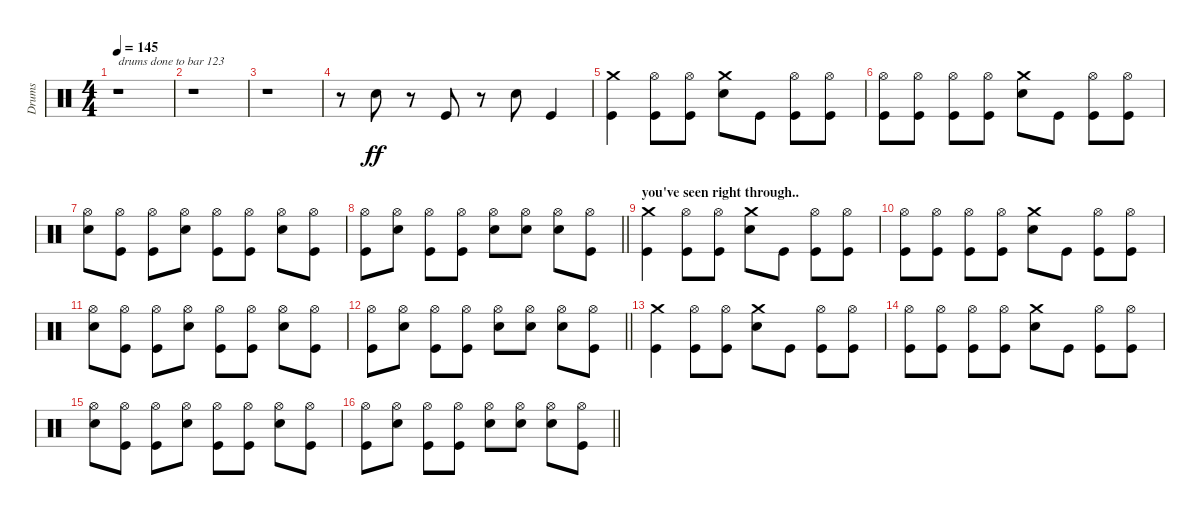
\track ("Drums" "Drums") {instrument percussion}
\staff {score}
\articulation defaults
\ts (4 4)
\tempo 145
\clef neutral
\ks c
r.1{txt "drums done to bar 123" dy ff} |
r.1 |
r.1 |
r.8 "Snare (hit) 2".8 r.8 "Kick (hit)".8 r.8 "Snare (hit) 2".8 "Kick (hit)".4 |
("Kick (hit)" "Crash medium (hit)").4 ("Hi-Hat (open)" "Kick (hit)").8 ("Hi-Hat (open)" "Kick (hit)").8 ("Snare (hit) 2" "Crash medium (hit)").8 "Kick (hit)".8 ("Hi-Hat (open)" "Kick (hit)").8 ("Hi-Hat (open)" "Kick (hit)").8 |
("Hi-Hat (open)" "Kick (hit)").8 ("Hi-Hat (open)" "Kick (hit)").8 ("Kick (hit)" "Hi-Hat (open)").8 ("Hi-Hat (open)" "Kick (hit)").8 ("Snare (hit) 2" "Crash medium (hit)").8 "Kick (hit)".8 ("Hi-Hat (open)" "Kick (hit)").8 ("Hi-Hat (open)" "Kick (hit)").8 |
("Hi-Hat (open)" "Snare (hit) 2").8 ("Hi-Hat (open)" "Kick (hit)").8 ("Hi-Hat (open)" "Kick (hit)").8 ("Snare (hit) 2" "Hi-Hat (open)").8 ("Hi-Hat (open)" "Kick (hit)").8 ("Hi-Hat (open)" "Kick (hit)").8 ("Snare (hit) 2" "Hi-Hat (open)").8 ("Hi-Hat (open)" "Kick (hit)").8 |
\barLineRight lightlight
("Hi-Hat (open)" "Kick (hit)").8 ("Snare (hit) 2" "Hi-Hat (open)").8 ("Hi-Hat (open)" "Kick (hit)").8 ("Hi-Hat (open)" "Kick (hit)").8 ("Hi-Hat (open)" "Snare (hit) 2").8 ("Hi-Hat (open)" "Snare (hit) 2").8 ("Hi-Hat (open)" "Snare (hit) 2").8 ("Hi-Hat (open)" "Kick (hit)").8 |
\section ("" "you've seen right through..")
("Kick (hit)" "Crash medium (hit)").4 ("Hi-Hat (open)" "Kick (hit)").8 ("Hi-Hat (open)" "Kick (hit)").8 ("Snare (hit) 2" "Crash medium (hit)").8 "Kick (hit)".8 ("Hi-Hat (open)" "Kick (hit)").8 ("Hi-Hat (open)" "Kick (hit)").8 |
("Hi-Hat (open)" "Kick (hit)").8 ("Hi-Hat (open)" "Kick (hit)").8 ("Kick (hit)" "Hi-Hat (open)").8 ("Hi-Hat (open)" "Kick (hit)").8 ("Snare (hit) 2" "Crash medium (hit)").8 "Kick (hit)".8 ("Hi-Hat (open)" "Kick (hit)").8 ("Hi-Hat (open)" "Kick (hit)").8 |
("Hi-Hat (open)" "Snare (hit) 2").8 ("Hi-Hat (open)" "Kick (hit)").8 ("Hi-Hat (open)" "Kick (hit)").8 ("Snare (hit) 2" "Hi-Hat (open)").8 ("Hi-Hat (open)" "Kick (hit)").8 ("Hi-Hat (open)" "Kick (hit)").8 ("Snare (hit) 2" "Hi-Hat (open)").8 ("Hi-Hat (open)" "Kick (hit)").8 |
\barLineRight lightlight
("Hi-Hat (open)" "Kick (hit)").8 ("Snare (hit) 2" "Hi-Hat (open)").8 ("Hi-Hat (open)" "Kick (hit)").8 ("Hi-Hat (open)" "Kick (hit)").8 ("Hi-Hat (open)" "Snare (hit) 2").8 ("Hi-Hat (open)" "Snare (hit) 2").8 ("Hi-Hat (open)" "Snare (hit) 2").8 ("Hi-Hat (open)" "Kick (hit)").8 |
("Kick (hit)" "Crash medium (hit)").4 ("Hi-Hat (open)" "Kick (hit)").8 ("Hi-Hat (open)" "Kick (hit)").8 ("Snare (hit) 2" "Crash medium (hit)").8 "Kick (hit)".8 ("Hi-Hat (open)" "Kick (hit)").8 ("Hi-Hat (open)" "Kick (hit)").8 |
("Hi-Hat (open)" "Kick (hit)").8 ("Hi-Hat (open)" "Kick (hit)").8 ("Kick (hit)" "Hi-Hat (open)").8 ("Hi-Hat (open)" "Kick (hit)").8 ("Snare (hit) 2" "Crash medium (hit)").8 "Kick (hit)".8 ("Hi-Hat (open)" "Kick (hit)").8 ("Hi-Hat (open)" "Kick (hit)").8 |
("Hi-Hat (open)" "Snare (hit) 2").8 ("Hi-Hat (open)" "Kick (hit)").8 ("Hi-Hat (open)" "Kick (hit)").8 ("Snare (hit) 2" "Hi-Hat (open)").8 ("Hi-Hat (open)" "Kick (hit)").8 ("Hi-Hat (open)" "Kick (hit)").8 ("Snare (hit) 2" "Hi-Hat (open)").8 ("Hi-Hat (open)" "Kick (hit)").8 |
\barLineRight lightlight
("Hi-Hat (open)" "Kick (hit)").8 ("Snare (hit) 2" "Hi-Hat (open)").8 ("Hi-Hat (open)" "Kick (hit)").8 ("Hi-Hat (open)" "Kick (hit)").8 ("Hi-Hat (open)" "Snare (hit) 2").8 ("Hi-Hat (open)" "Snare (hit) 2").8 ("Hi-Hat (open)" "Snare (hit) 2").8 ("Hi-Hat (open)" "Kick (hit)").8
